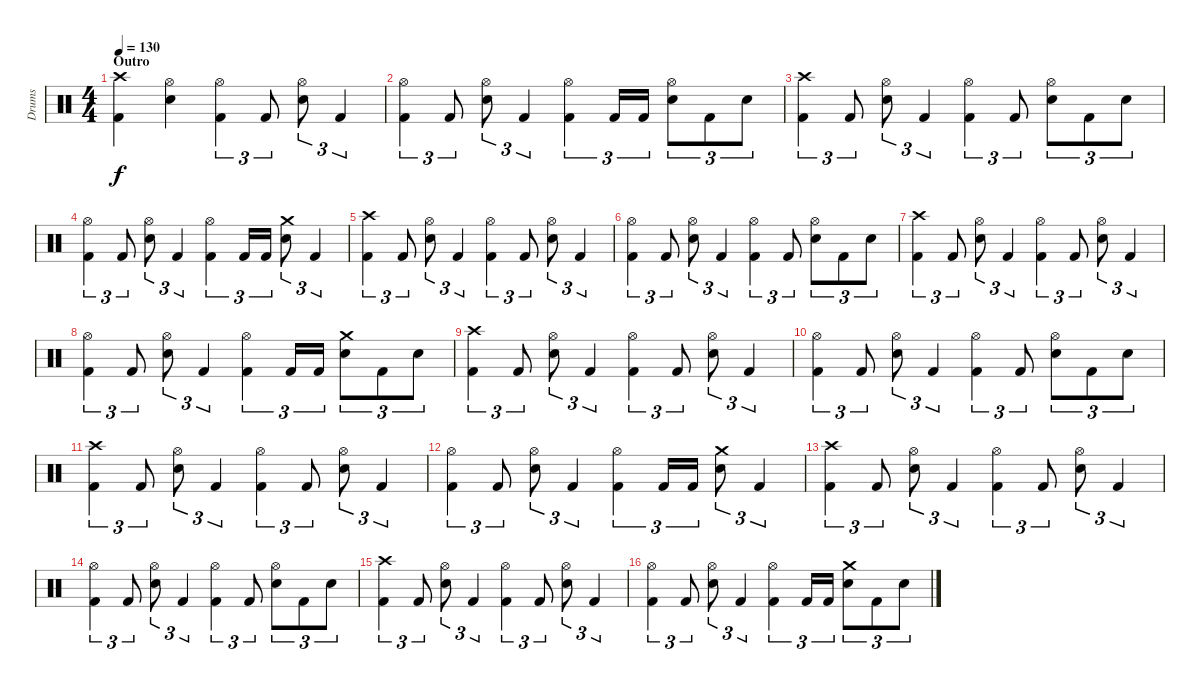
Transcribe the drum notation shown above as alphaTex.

\track ("Drums" "Drums") {instrument percussion}
\staff {score}
\articulation defaults
\ts (4 4)
\section ("" "Outro")
\tempo 130
\clef neutral
\ks c
("Crash high (hit)" "Kick (hit) 2").4{dy f} ("Hi-Hat (open)" "Electric Snare (hit)").4 ("Hi-Hat (open)" "Kick (hit) 2").4{tu (3 2)} "Kick (hit) 2".8{tu (3 2)} ("Hi-Hat (open)" "Electric Snare (hit)").8{tu (3 2)} "Kick (hit) 2".4{tu (3 2)} |
("Hi-Hat (open)" "Kick (hit) 2").4{tu (3 2)} "Kick (hit) 2".8{tu (3 2)} ("Hi-Hat (open)" "Electric Snare (hit)").8{tu (3 2)} "Kick (hit) 2".4{tu (3 2)} ("Hi-Hat (open)" "Kick (hit) 2").4{tu (3 2)} "Kick (hit) 2".16{tu (3 2)} "Kick (hit) 2".16{tu (3 2)} ("Hi-Hat (open)" "Electric Snare (hit)").8{tu (3 2)} "Kick (hit) 2".8{tu (3 2)} "Electric Snare (hit)".8{tu (3 2)} |
("Crash high (hit)" "Kick (hit) 2").4{tu (3 2)} "Kick (hit) 2".8{tu (3 2)} ("Hi-Hat (open)" "Electric Snare (hit)").8{tu (3 2)} "Kick (hit) 2".4{tu (3 2)} ("Hi-Hat (open)" "Kick (hit) 2").4{tu (3 2)} "Kick (hit) 2".8{tu (3 2)} ("Hi-Hat (open)" "Electric Snare (hit)").8{tu (3 2)} "Kick (hit) 2".8{tu (3 2)} "Electric Snare (hit)".8{tu (3 2)} |
("Hi-Hat (open)" "Kick (hit) 2").4{tu (3 2)} "Kick (hit) 2".8{tu (3 2)} ("Hi-Hat (open)" "Electric Snare (hit)").8{tu (3 2)} "Kick (hit) 2".4{tu (3 2)} ("Hi-Hat (open)" "Kick (hit) 2").4{tu (3 2)} "Kick (hit) 2".16{tu (3 2)} "Kick (hit) 2".16{tu (3 2)} ("Crash medium (hit)" "Electric Snare (hit)").8{tu (3 2)} "Kick (hit) 2".4{tu (3 2)} |
("Crash high (hit)" "Kick (hit) 2").4{tu (3 2)} "Kick (hit) 2".8{tu (3 2)} ("Hi-Hat (open)" "Electric Snare (hit)").8{tu (3 2)} "Kick (hit) 2".4{tu (3 2)} ("Hi-Hat (open)" "Kick (hit) 2").4{tu (3 2)} "Kick (hit) 2".8{tu (3 2)} ("Hi-Hat (open)" "Electric Snare (hit)").8{tu (3 2)} "Kick (hit) 2".4{tu (3 2)} |
("Hi-Hat (open)" "Kick (hit) 2").4{tu (3 2)} "Kick (hit) 2".8{tu (3 2)} ("Hi-Hat (open)" "Electric Snare (hit)").8{tu (3 2)} "Kick (hit) 2".4{tu (3 2)} ("Hi-Hat (open)" "Kick (hit) 2").4{tu (3 2)} "Kick (hit) 2".8{tu (3 2)} ("Hi-Hat (open)" "Electric Snare (hit)").8{tu (3 2)} "Kick (hit) 2".8{tu (3 2)} "Electric Snare (hit)".8{tu (3 2)} |
("Crash high (hit)" "Kick (hit) 2").4{tu (3 2)} "Kick (hit) 2".8{tu (3 2)} ("Hi-Hat (open)" "Electric Snare (hit)").8{tu (3 2)} "Kick (hit) 2".4{tu (3 2)} ("Hi-Hat (open)" "Kick (hit) 2").4{tu (3 2)} "Kick (hit) 2".8{tu (3 2)} ("Hi-Hat (open)" "Electric Snare (hit)").8{tu (3 2)} "Kick (hit) 2".4{tu (3 2)} |
("Hi-Hat (open)" "Kick (hit) 2").4{tu (3 2)} "Kick (hit) 2".8{tu (3 2)} ("Hi-Hat (open)" "Electric Snare (hit)").8{tu (3 2)} "Kick (hit) 2".4{tu (3 2)} ("Hi-Hat (open)" "Kick (hit) 2").4{tu (3 2)} "Kick (hit) 2".16{tu (3 2)} "Kick (hit) 2".16{tu (3 2)} ("Crash medium (hit)" "Electric Snare (hit)").8{tu (3 2)} "Kick (hit) 2".8{tu (3 2)} "Electric Snare (hit)".8{tu (3 2)} |
("Crash high (hit)" "Kick (hit) 2").4{tu (3 2)} "Kick (hit) 2".8{tu (3 2)} ("Hi-Hat (open)" "Electric Snare (hit)").8{tu (3 2)} "Kick (hit) 2".4{tu (3 2)} ("Hi-Hat (open)" "Kick (hit) 2").4{tu (3 2)} "Kick (hit) 2".8{tu (3 2)} ("Hi-Hat (open)" "Electric Snare (hit)").8{tu (3 2)} "Kick (hit) 2".4{tu (3 2)} |
("Hi-Hat (open)" "Kick (hit) 2").4{tu (3 2)} "Kick (hit) 2".8{tu (3 2)} ("Hi-Hat (open)" "Electric Snare (hit)").8{tu (3 2)} "Kick (hit) 2".4{tu (3 2)} ("Hi-Hat (open)" "Kick (hit) 2").4{tu (3 2)} "Kick (hit) 2".8{tu (3 2)} ("Hi-Hat (open)" "Electric Snare (hit)").8{tu (3 2)} "Kick (hit) 2".8{tu (3 2)} "Electric Snare (hit)".8{tu (3 2)} |
("Crash high (hit)" "Kick (hit) 2").4{tu (3 2)} "Kick (hit) 2".8{tu (3 2)} ("Hi-Hat (open)" "Electric Snare (hit)").8{tu (3 2)} "Kick (hit) 2".4{tu (3 2)} ("Hi-Hat (open)" "Kick (hit) 2").4{tu (3 2)} "Kick (hit) 2".8{tu (3 2)} ("Hi-Hat (open)" "Electric Snare (hit)").8{tu (3 2)} "Kick (hit) 2".4{tu (3 2)} |
("Hi-Hat (open)" "Kick (hit) 2").4{tu (3 2)} "Kick (hit) 2".8{tu (3 2)} ("Hi-Hat (open)" "Electric Snare (hit)").8{tu (3 2)} "Kick (hit) 2".4{tu (3 2)} ("Hi-Hat (open)" "Kick (hit) 2").4{tu (3 2)} "Kick (hit) 2".16{tu (3 2)} "Kick (hit) 2".16{tu (3 2)} ("Crash medium (hit)" "Electric Snare (hit)").8{tu (3 2)} "Kick (hit) 2".4{tu (3 2)} |
("Crash high (hit)" "Kick (hit) 2").4{tu (3 2)} "Kick (hit) 2".8{tu (3 2)} ("Hi-Hat (open)" "Electric Snare (hit)").8{tu (3 2)} "Kick (hit) 2".4{tu (3 2)} ("Hi-Hat (open)" "Kick (hit) 2").4{tu (3 2)} "Kick (hit) 2".8{tu (3 2)} ("Hi-Hat (open)" "Electric Snare (hit)").8{tu (3 2)} "Kick (hit) 2".4{tu (3 2)} |
("Hi-Hat (open)" "Kick (hit) 2").4{tu (3 2)} "Kick (hit) 2".8{tu (3 2)} ("Hi-Hat (open)" "Electric Snare (hit)").8{tu (3 2)} "Kick (hit) 2".4{tu (3 2)} ("Hi-Hat (open)" "Kick (hit) 2").4{tu (3 2)} "Kick (hit) 2".8{tu (3 2)} ("Hi-Hat (open)" "Electric Snare (hit)").8{tu (3 2)} "Kick (hit) 2".8{tu (3 2)} "Electric Snare (hit)".8{tu (3 2)} |
("Crash high (hit)" "Kick (hit) 2").4{tu (3 2)} "Kick (hit) 2".8{tu (3 2)} ("Hi-Hat (open)" "Electric Snare (hit)").8{tu (3 2)} "Kick (hit) 2".4{tu (3 2)} ("Hi-Hat (open)" "Kick (hit) 2").4{tu (3 2)} "Kick (hit) 2".8{tu (3 2)} ("Hi-Hat (open)" "Electric Snare (hit)").8{tu (3 2)} "Kick (hit) 2".4{tu (3 2)} |
("Hi-Hat (open)" "Kick (hit) 2").4{tu (3 2)} "Kick (hit) 2".8{tu (3 2)} ("Hi-Hat (open)" "Electric Snare (hit)").8{tu (3 2)} "Kick (hit) 2".4{tu (3 2)} ("Hi-Hat (open)" "Kick (hit) 2").4{tu (3 2)} "Kick (hit) 2".16{tu (3 2)} "Kick (hit) 2".16{tu (3 2)} ("Crash medium (hit)" "Electric Snare (hit)").8{tu (3 2)} "Kick (hit) 2".8{tu (3 2)} "Electric Snare (hit)".8{tu (3 2)}
